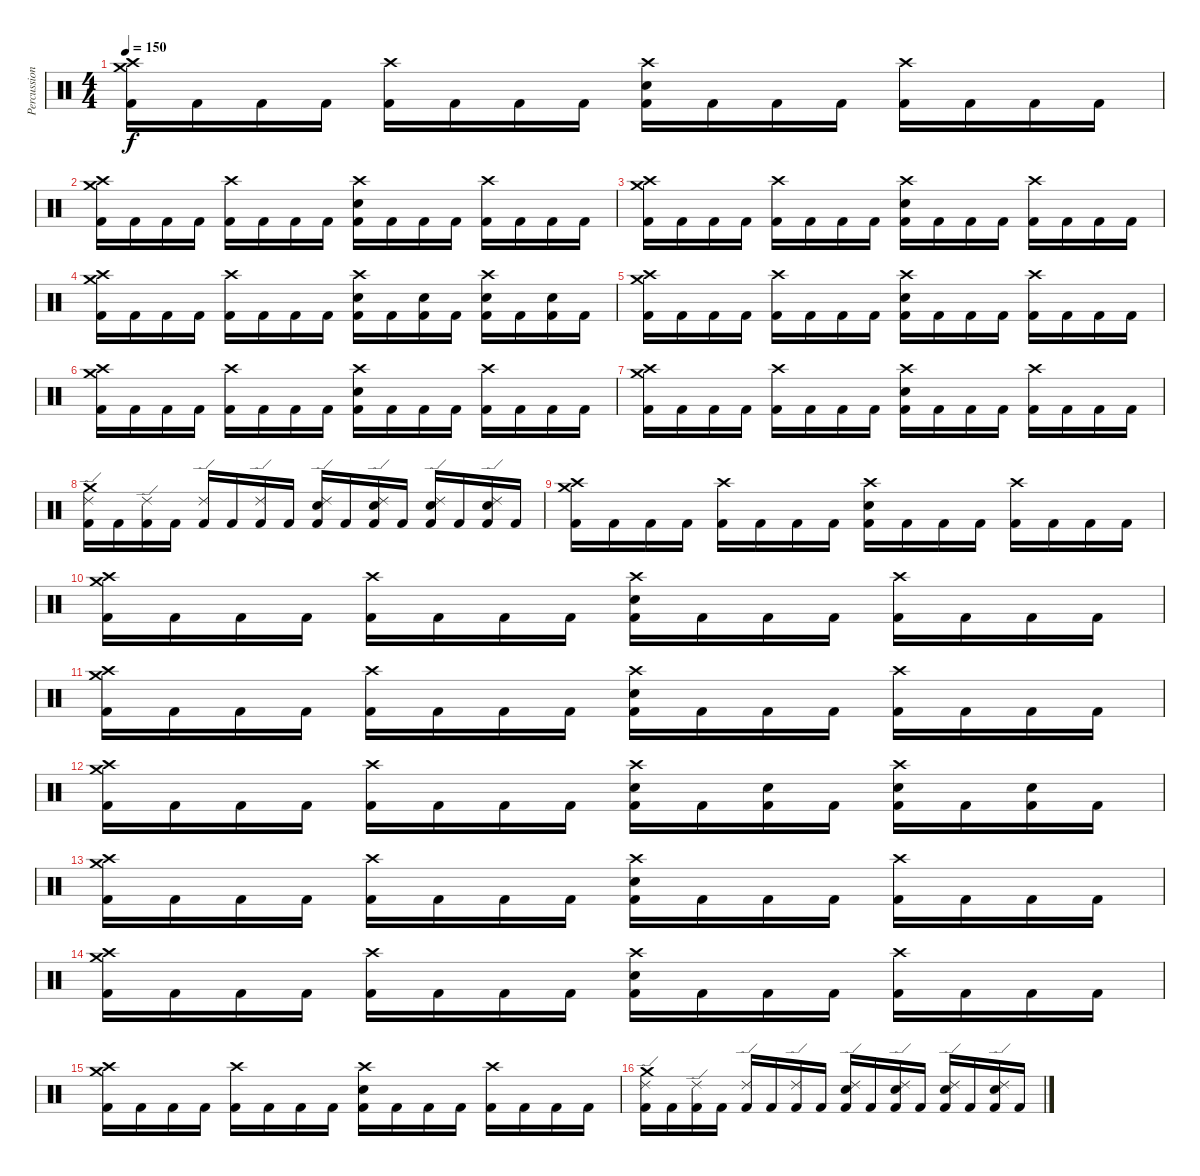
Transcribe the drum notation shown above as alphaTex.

\track ("Percussion" "Percussion") {instrument percussion}
\staff {score}
\articulation defaults
\ts (4 4)
\tempo 150
\clef neutral
\ks c
("Crash high (hit)" "Crash medium (hit)" "Kick (hit) 2").16{dy f} "Kick (hit) 2".16 "Kick (hit) 2".16 "Kick (hit) 2".16 ("Crash high (hit)" "Kick (hit) 2").16 "Kick (hit) 2".16 "Kick (hit) 2".16 "Kick (hit) 2".16 ("Crash high (hit)" "Electric Snare (hit)" "Kick (hit) 2").16 "Kick (hit) 2".16 "Kick (hit) 2".16 "Kick (hit) 2".16 ("Crash high (hit)" "Kick (hit) 2").16 "Kick (hit) 2".16 "Kick (hit) 2".16 "Kick (hit) 2".16 |
("Crash high (hit)" "Crash medium (hit)" "Kick (hit) 2").16 "Kick (hit) 2".16 "Kick (hit) 2".16 "Kick (hit) 2".16 ("Crash high (hit)" "Kick (hit) 2").16 "Kick (hit) 2".16 "Kick (hit) 2".16 "Kick (hit) 2".16 ("Crash high (hit)" "Electric Snare (hit)" "Kick (hit) 2").16 "Kick (hit) 2".16 "Kick (hit) 2".16 "Kick (hit) 2".16 ("Crash high (hit)" "Kick (hit) 2").16 "Kick (hit) 2".16 "Kick (hit) 2".16 "Kick (hit) 2".16 |
("Crash high (hit)" "Crash medium (hit)" "Kick (hit) 2").16 "Kick (hit) 2".16 "Kick (hit) 2".16 "Kick (hit) 2".16 ("Crash high (hit)" "Kick (hit) 2").16 "Kick (hit) 2".16 "Kick (hit) 2".16 "Kick (hit) 2".16 ("Crash high (hit)" "Electric Snare (hit)" "Kick (hit) 2").16 "Kick (hit) 2".16 "Kick (hit) 2".16 "Kick (hit) 2".16 ("Crash high (hit)" "Kick (hit) 2").16 "Kick (hit) 2".16 "Kick (hit) 2".16 "Kick (hit) 2".16 |
("Crash high (hit)" "Crash medium (hit)" "Kick (hit) 2").16 "Kick (hit) 2".16 "Kick (hit) 2".16 "Kick (hit) 2".16 ("Crash high (hit)" "Kick (hit) 2").16 "Kick (hit) 2".16 "Kick (hit) 2".16 "Kick (hit) 2".16 ("Crash high (hit)" "Electric Snare (hit)" "Kick (hit) 2").16 "Kick (hit) 2".16 ("Electric Snare (hit)" "Kick (hit) 2").16 "Kick (hit) 2".16 ("Crash high (hit)" "Electric Snare (hit)" "Kick (hit) 2").16 "Kick (hit) 2".16 ("Electric Snare (hit)" "Kick (hit) 2").16 "Kick (hit) 2".16 |
("Crash high (hit)" "Crash medium (hit)" "Kick (hit) 2").16 "Kick (hit) 2".16 "Kick (hit) 2".16 "Kick (hit) 2".16 ("Crash high (hit)" "Kick (hit) 2").16 "Kick (hit) 2".16 "Kick (hit) 2".16 "Kick (hit) 2".16 ("Crash high (hit)" "Electric Snare (hit)" "Kick (hit) 2").16 "Kick (hit) 2".16 "Kick (hit) 2".16 "Kick (hit) 2".16 ("Crash high (hit)" "Kick (hit) 2").16 "Kick (hit) 2".16 "Kick (hit) 2".16 "Kick (hit) 2".16 |
("Crash high (hit)" "Crash medium (hit)" "Kick (hit) 2").16 "Kick (hit) 2".16 "Kick (hit) 2".16 "Kick (hit) 2".16 ("Crash high (hit)" "Kick (hit) 2").16 "Kick (hit) 2".16 "Kick (hit) 2".16 "Kick (hit) 2".16 ("Crash high (hit)" "Electric Snare (hit)" "Kick (hit) 2").16 "Kick (hit) 2".16 "Kick (hit) 2".16 "Kick (hit) 2".16 ("Crash high (hit)" "Kick (hit) 2").16 "Kick (hit) 2".16 "Kick (hit) 2".16 "Kick (hit) 2".16 |
("Crash high (hit)" "Crash medium (hit)" "Kick (hit) 2").16 "Kick (hit) 2".16 "Kick (hit) 2".16 "Kick (hit) 2".16 ("Crash high (hit)" "Kick (hit) 2").16 "Kick (hit) 2".16 "Kick (hit) 2".16 "Kick (hit) 2".16 ("Crash high (hit)" "Electric Snare (hit)" "Kick (hit) 2").16 "Kick (hit) 2".16 "Kick (hit) 2".16 "Kick (hit) 2".16 ("Crash high (hit)" "Kick (hit) 2").16 "Kick (hit) 2".16 "Kick (hit) 2".16 "Kick (hit) 2".16 |
("Ride (edge) 2" "Crash medium (hit)" "Kick (hit) 2").16 "Kick (hit) 2".16 ("Ride (edge) 2" "Kick (hit) 2").16 "Kick (hit) 2".16 ("Ride (edge) 2" "Kick (hit) 2").16 "Kick (hit) 2".16 ("Ride (edge) 2" "Kick (hit) 2").16 "Kick (hit) 2".16 ("Ride (edge) 2" "Electric Snare (hit)" "Kick (hit) 2").16 "Kick (hit) 2".16 ("Ride (edge) 2" "Electric Snare (hit)" "Kick (hit) 2").16 "Kick (hit) 2".16 ("Ride (edge) 2" "Electric Snare (hit)" "Kick (hit) 2").16 "Kick (hit) 2".16 ("Ride (edge) 2" "Electric Snare (hit)" "Kick (hit) 2").16 "Kick (hit) 2".16 |
("Crash high (hit)" "Crash medium (hit)" "Kick (hit) 2").16 "Kick (hit) 2".16 "Kick (hit) 2".16 "Kick (hit) 2".16 ("Crash high (hit)" "Kick (hit) 2").16 "Kick (hit) 2".16 "Kick (hit) 2".16 "Kick (hit) 2".16 ("Crash high (hit)" "Electric Snare (hit)" "Kick (hit) 2").16 "Kick (hit) 2".16 "Kick (hit) 2".16 "Kick (hit) 2".16 ("Crash high (hit)" "Kick (hit) 2").16 "Kick (hit) 2".16 "Kick (hit) 2".16 "Kick (hit) 2".16 |
("Crash high (hit)" "Crash medium (hit)" "Kick (hit) 2").16 "Kick (hit) 2".16 "Kick (hit) 2".16 "Kick (hit) 2".16 ("Crash high (hit)" "Kick (hit) 2").16 "Kick (hit) 2".16 "Kick (hit) 2".16 "Kick (hit) 2".16 ("Crash high (hit)" "Electric Snare (hit)" "Kick (hit) 2").16 "Kick (hit) 2".16 "Kick (hit) 2".16 "Kick (hit) 2".16 ("Crash high (hit)" "Kick (hit) 2").16 "Kick (hit) 2".16 "Kick (hit) 2".16 "Kick (hit) 2".16 |
("Crash high (hit)" "Crash medium (hit)" "Kick (hit) 2").16 "Kick (hit) 2".16 "Kick (hit) 2".16 "Kick (hit) 2".16 ("Crash high (hit)" "Kick (hit) 2").16 "Kick (hit) 2".16 "Kick (hit) 2".16 "Kick (hit) 2".16 ("Crash high (hit)" "Electric Snare (hit)" "Kick (hit) 2").16 "Kick (hit) 2".16 "Kick (hit) 2".16 "Kick (hit) 2".16 ("Crash high (hit)" "Kick (hit) 2").16 "Kick (hit) 2".16 "Kick (hit) 2".16 "Kick (hit) 2".16 |
("Crash high (hit)" "Crash medium (hit)" "Kick (hit) 2").16 "Kick (hit) 2".16 "Kick (hit) 2".16 "Kick (hit) 2".16 ("Crash high (hit)" "Kick (hit) 2").16 "Kick (hit) 2".16 "Kick (hit) 2".16 "Kick (hit) 2".16 ("Crash high (hit)" "Electric Snare (hit)" "Kick (hit) 2").16 "Kick (hit) 2".16 ("Electric Snare (hit)" "Kick (hit) 2").16 "Kick (hit) 2".16 ("Crash high (hit)" "Electric Snare (hit)" "Kick (hit) 2").16 "Kick (hit) 2".16 ("Electric Snare (hit)" "Kick (hit) 2").16 "Kick (hit) 2".16 |
("Crash high (hit)" "Crash medium (hit)" "Kick (hit) 2").16 "Kick (hit) 2".16 "Kick (hit) 2".16 "Kick (hit) 2".16 ("Crash high (hit)" "Kick (hit) 2").16 "Kick (hit) 2".16 "Kick (hit) 2".16 "Kick (hit) 2".16 ("Crash high (hit)" "Electric Snare (hit)" "Kick (hit) 2").16 "Kick (hit) 2".16 "Kick (hit) 2".16 "Kick (hit) 2".16 ("Crash high (hit)" "Kick (hit) 2").16 "Kick (hit) 2".16 "Kick (hit) 2".16 "Kick (hit) 2".16 |
("Crash high (hit)" "Crash medium (hit)" "Kick (hit) 2").16 "Kick (hit) 2".16 "Kick (hit) 2".16 "Kick (hit) 2".16 ("Crash high (hit)" "Kick (hit) 2").16 "Kick (hit) 2".16 "Kick (hit) 2".16 "Kick (hit) 2".16 ("Crash high (hit)" "Electric Snare (hit)" "Kick (hit) 2").16 "Kick (hit) 2".16 "Kick (hit) 2".16 "Kick (hit) 2".16 ("Crash high (hit)" "Kick (hit) 2").16 "Kick (hit) 2".16 "Kick (hit) 2".16 "Kick (hit) 2".16 |
("Crash high (hit)" "Crash medium (hit)" "Kick (hit) 2").16 "Kick (hit) 2".16 "Kick (hit) 2".16 "Kick (hit) 2".16 ("Crash high (hit)" "Kick (hit) 2").16 "Kick (hit) 2".16 "Kick (hit) 2".16 "Kick (hit) 2".16 ("Crash high (hit)" "Electric Snare (hit)" "Kick (hit) 2").16 "Kick (hit) 2".16 "Kick (hit) 2".16 "Kick (hit) 2".16 ("Crash high (hit)" "Kick (hit) 2").16 "Kick (hit) 2".16 "Kick (hit) 2".16 "Kick (hit) 2".16 |
("Ride (edge) 2" "Crash medium (hit)" "Kick (hit) 2").16 "Kick (hit) 2".16 ("Ride (edge) 2" "Kick (hit) 2").16 "Kick (hit) 2".16 ("Ride (edge) 2" "Kick (hit) 2").16 "Kick (hit) 2".16 ("Ride (edge) 2" "Kick (hit) 2").16 "Kick (hit) 2".16 ("Ride (edge) 2" "Electric Snare (hit)" "Kick (hit) 2").16 "Kick (hit) 2".16 ("Ride (edge) 2" "Electric Snare (hit)" "Kick (hit) 2").16 "Kick (hit) 2".16 ("Ride (edge) 2" "Electric Snare (hit)" "Kick (hit) 2").16 "Kick (hit) 2".16 ("Ride (edge) 2" "Electric Snare (hit)" "Kick (hit) 2").16 "Kick (hit) 2".16
